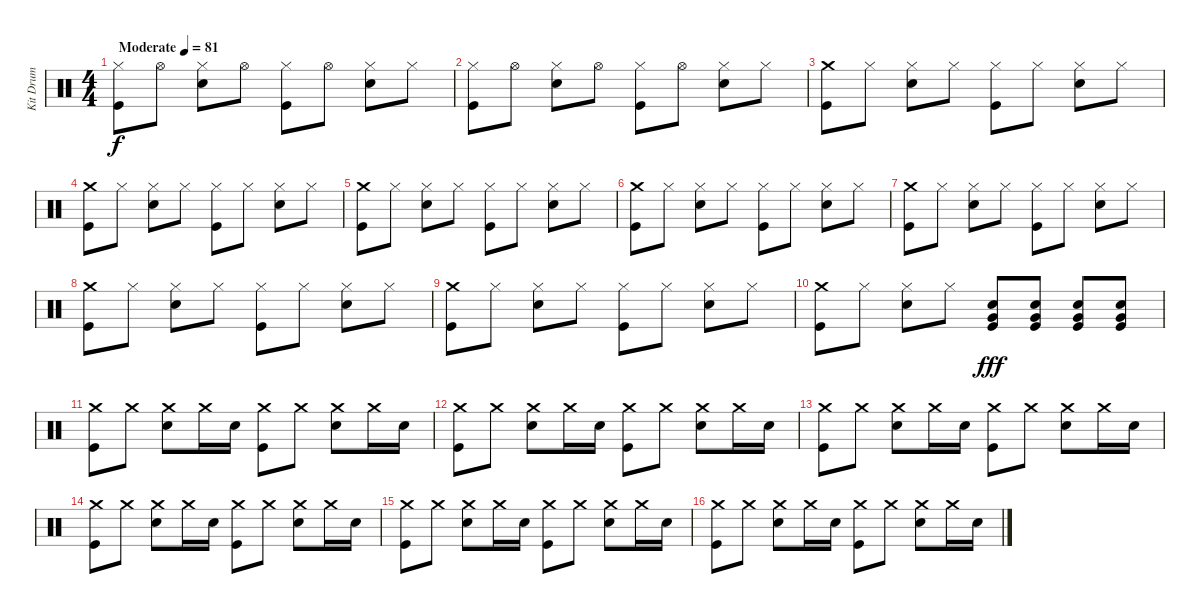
\track ("Kit Drum" "Kit Drum") {instrument percussion}
\staff {score}
\articulation defaults
\ts (4 4)
\tempo (81 "Moderate")
\clef neutral
\ks c
("Hi-Hat (closed)" "Kick (hit)").8{dy f} "Hi-Hat (open)".8 ("Hi-Hat (closed)" "Snare (hit) 2").8 "Hi-Hat (open)".8 ("Hi-Hat (closed)" "Kick (hit)").8 "Hi-Hat (open)".8 ("Hi-Hat (closed)" "Snare (hit) 2").8 "Hi-Hat (closed)".8 |
("Hi-Hat (closed)" "Kick (hit)").8 "Hi-Hat (open)".8 ("Hi-Hat (closed)" "Snare (hit) 2").8 "Hi-Hat (open)".8 ("Hi-Hat (closed)" "Kick (hit)").8 "Hi-Hat (open)".8 ("Hi-Hat (closed)" "Snare (hit) 2").8 "Hi-Hat (closed)".8 |
("Crash medium (hit)" "Kick (hit)").8 "Hi-Hat (closed)".8 ("Hi-Hat (closed)" "Electric Snare (hit)").8 "Hi-Hat (closed)".8 ("Hi-Hat (closed)" "Kick (hit)").8 "Hi-Hat (closed)".8 ("Hi-Hat (closed)" "Electric Snare (hit)").8 "Hi-Hat (closed)".8 |
("Crash medium (hit)" "Kick (hit)").8 "Hi-Hat (closed)".8 ("Hi-Hat (closed)" "Electric Snare (hit)").8 "Hi-Hat (closed)".8 ("Hi-Hat (closed)" "Kick (hit)").8 "Hi-Hat (closed)".8 ("Hi-Hat (closed)" "Electric Snare (hit)").8 "Hi-Hat (closed)".8 |
("Crash medium (hit)" "Kick (hit)").8 "Hi-Hat (closed)".8 ("Hi-Hat (closed)" "Electric Snare (hit)").8 "Hi-Hat (closed)".8 ("Hi-Hat (closed)" "Kick (hit)").8 "Hi-Hat (closed)".8 ("Hi-Hat (closed)" "Electric Snare (hit)").8 "Hi-Hat (closed)".8 |
("Crash medium (hit)" "Kick (hit)").8 "Hi-Hat (closed)".8 ("Hi-Hat (closed)" "Electric Snare (hit)").8 "Hi-Hat (closed)".8 ("Hi-Hat (closed)" "Kick (hit)").8 "Hi-Hat (closed)".8 ("Hi-Hat (closed)" "Electric Snare (hit)").8 "Hi-Hat (closed)".8 |
("Crash medium (hit)" "Kick (hit)").8 "Hi-Hat (closed)".8 ("Hi-Hat (closed)" "Electric Snare (hit)").8 "Hi-Hat (closed)".8 ("Hi-Hat (closed)" "Kick (hit)").8 "Hi-Hat (closed)".8 ("Hi-Hat (closed)" "Electric Snare (hit)").8 "Hi-Hat (closed)".8 |
("Crash medium (hit)" "Kick (hit)").8 "Hi-Hat (closed)".8 ("Hi-Hat (closed)" "Electric Snare (hit)").8 "Hi-Hat (closed)".8 ("Hi-Hat (closed)" "Kick (hit)").8 "Hi-Hat (closed)".8 ("Hi-Hat (closed)" "Electric Snare (hit)").8 "Hi-Hat (closed)".8 |
("Crash medium (hit)" "Kick (hit)").8 "Hi-Hat (closed)".8 ("Hi-Hat (closed)" "Electric Snare (hit)").8 "Hi-Hat (closed)".8 ("Hi-Hat (closed)" "Kick (hit)").8 "Hi-Hat (closed)".8 ("Hi-Hat (closed)" "Electric Snare (hit)").8 "Hi-Hat (closed)".8 |
("Crash medium (hit)" "Kick (hit)").8 "Hi-Hat (closed)".8 ("Hi-Hat (closed)" "Electric Snare (hit)").8 "Hi-Hat (closed)".8 ("Very Low Tom (hit)" "Kick (hit)" "Electric Snare (hit)").8{dy fff} ("Very Low Tom (hit)" "Kick (hit)" "Electric Snare (hit)").8 ("Very Low Tom (hit)" "Kick (hit)" "Electric Snare (hit)").8 ("Very Low Tom (hit)" "Kick (hit)" "Electric Snare (hit)").8 |
("Crash medium (hit)" "Kick (hit)").8 "Crash medium (hit)".8 ("Crash medium (hit)" "Electric Snare (hit)").8 "Crash medium (hit)".16 "Electric Snare (hit)".16 ("Crash medium (hit)" "Kick (hit)").8 "Crash medium (hit)".8 ("Crash medium (hit)" "Electric Snare (hit)").8 "Crash medium (hit)".16 "Electric Snare (hit)".16 |
("Crash medium (hit)" "Kick (hit)").8 "Crash medium (hit)".8 ("Crash medium (hit)" "Electric Snare (hit)").8 "Crash medium (hit)".16 "Electric Snare (hit)".16 ("Crash medium (hit)" "Kick (hit)").8 "Crash medium (hit)".8 ("Crash medium (hit)" "Electric Snare (hit)").8 "Crash medium (hit)".16 "Electric Snare (hit)".16 |
("Crash medium (hit)" "Kick (hit)").8 "Crash medium (hit)".8 ("Crash medium (hit)" "Electric Snare (hit)").8 "Crash medium (hit)".16 "Electric Snare (hit)".16 ("Crash medium (hit)" "Kick (hit)").8 "Crash medium (hit)".8 ("Crash medium (hit)" "Electric Snare (hit)").8 "Crash medium (hit)".16 "Electric Snare (hit)".16 |
("Crash medium (hit)" "Kick (hit)").8 "Crash medium (hit)".8 ("Crash medium (hit)" "Electric Snare (hit)").8 "Crash medium (hit)".16 "Electric Snare (hit)".16 ("Crash medium (hit)" "Kick (hit)").8 "Crash medium (hit)".8 ("Crash medium (hit)" "Electric Snare (hit)").8 "Crash medium (hit)".16 "Electric Snare (hit)".16 |
("Crash medium (hit)" "Kick (hit)").8 "Crash medium (hit)".8 ("Crash medium (hit)" "Electric Snare (hit)").8 "Crash medium (hit)".16 "Electric Snare (hit)".16 ("Crash medium (hit)" "Kick (hit)").8 "Crash medium (hit)".8 ("Crash medium (hit)" "Electric Snare (hit)").8 "Crash medium (hit)".16 "Electric Snare (hit)".16 |
("Crash medium (hit)" "Kick (hit)").8 "Crash medium (hit)".8 ("Crash medium (hit)" "Electric Snare (hit)").8 "Crash medium (hit)".16 "Electric Snare (hit)".16 ("Crash medium (hit)" "Kick (hit)").8 "Crash medium (hit)".8 ("Crash medium (hit)" "Electric Snare (hit)").8 "Crash medium (hit)".16 "Electric Snare (hit)".16
